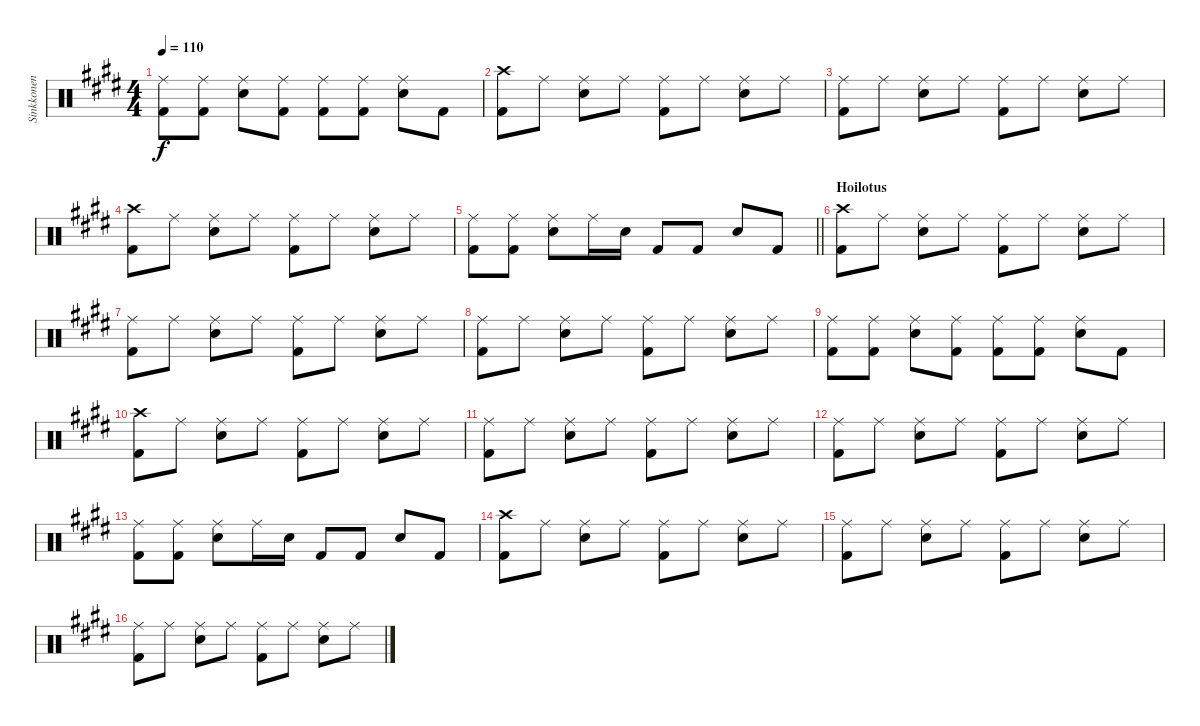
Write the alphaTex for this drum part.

\track ("Sinkkonen" "Sinkkonen") {instrument percussion}
\staff {score}
\articulation defaults
\ts (4 4)
\tempo 110
\clef neutral
\ks c#minor
("Ride (middle)" "Kick (hit) 2").8{dy f} ("Ride (middle)" "Kick (hit) 2").8 ("Ride (middle)" "Snare (hit) 2").8 ("Ride (middle)" "Kick (hit) 2").8 ("Ride (middle)" "Kick (hit) 2").8 ("Ride (middle)" "Kick (hit) 2").8 ("Ride (middle)" "Snare (hit) 2").8 "Kick (hit) 2".8 |
("Crash high (hit)" "Kick (hit) 2").8 "Ride (middle)".8 ("Ride (middle)" "Snare (hit) 2").8 "Ride (middle)".8 ("Ride (middle)" "Kick (hit) 2").8 "Ride (middle)".8 ("Ride (middle)" "Snare (hit) 2").8 "Ride (middle)".8 |
("Ride (middle)" "Kick (hit) 2").8 "Ride (middle)".8 ("Ride (middle)" "Snare (hit) 2").8 "Ride (middle)".8 ("Ride (middle)" "Kick (hit) 2").8 "Ride (middle)".8 ("Ride (middle)" "Snare (hit) 2").8 "Ride (middle)".8 |
("Crash high (hit)" "Kick (hit) 2").8 "Ride (middle)".8 ("Ride (middle)" "Snare (hit) 2").8 "Ride (middle)".8 ("Ride (middle)" "Kick (hit) 2").8 "Ride (middle)".8 ("Ride (middle)" "Snare (hit) 2").8 "Ride (middle)".8 |
\barLineRight lightlight
("Ride (middle)" "Kick (hit) 2").8 ("Ride (middle)" "Kick (hit) 2").8 ("Ride (middle)" "Snare (hit) 2").8 "Ride (middle)".16 "Snare (hit) 2".16 "Kick (hit) 2".8 "Kick (hit) 2".8 "Snare (hit) 2".8 "Kick (hit) 2".8 |
\section ("" "Hoilotus")
("Crash high (hit)" "Kick (hit) 2").8 "Ride (middle)".8 ("Ride (middle)" "Snare (hit) 2").8 "Ride (middle)".8 ("Ride (middle)" "Kick (hit) 2").8 "Ride (middle)".8 ("Ride (middle)" "Snare (hit) 2").8 "Ride (middle)".8 |
("Ride (middle)" "Kick (hit) 2").8 "Ride (middle)".8 ("Ride (middle)" "Snare (hit) 2").8 "Ride (middle)".8 ("Ride (middle)" "Kick (hit) 2").8 "Ride (middle)".8 ("Ride (middle)" "Snare (hit) 2").8 "Ride (middle)".8 |
("Ride (middle)" "Kick (hit) 2").8 "Ride (middle)".8 ("Ride (middle)" "Snare (hit) 2").8 "Ride (middle)".8 ("Ride (middle)" "Kick (hit) 2").8 "Ride (middle)".8 ("Ride (middle)" "Snare (hit) 2").8 "Ride (middle)".8 |
("Ride (middle)" "Kick (hit) 2").8 ("Ride (middle)" "Kick (hit) 2").8 ("Ride (middle)" "Snare (hit) 2").8 ("Ride (middle)" "Kick (hit) 2").8 ("Ride (middle)" "Kick (hit) 2").8 ("Ride (middle)" "Kick (hit) 2").8 ("Ride (middle)" "Snare (hit) 2").8 "Kick (hit) 2".8 |
("Crash high (hit)" "Kick (hit) 2").8 "Ride (middle)".8 ("Ride (middle)" "Snare (hit) 2").8 "Ride (middle)".8 ("Ride (middle)" "Kick (hit) 2").8 "Ride (middle)".8 ("Ride (middle)" "Snare (hit) 2").8 "Ride (middle)".8 |
("Ride (middle)" "Kick (hit) 2").8 "Ride (middle)".8 ("Ride (middle)" "Snare (hit) 2").8 "Ride (middle)".8 ("Ride (middle)" "Kick (hit) 2").8 "Ride (middle)".8 ("Ride (middle)" "Snare (hit) 2").8 "Ride (middle)".8 |
("Ride (middle)" "Kick (hit) 2").8 "Ride (middle)".8 ("Ride (middle)" "Snare (hit) 2").8 "Ride (middle)".8 ("Ride (middle)" "Kick (hit) 2").8 "Ride (middle)".8 ("Ride (middle)" "Snare (hit) 2").8 "Ride (middle)".8 |
("Ride (middle)" "Kick (hit) 2").8 ("Ride (middle)" "Kick (hit) 2").8 ("Ride (middle)" "Snare (hit) 2").8 "Ride (middle)".16 "Snare (hit) 2".16 "Kick (hit) 2".8 "Kick (hit) 2".8 "Snare (hit) 2".8 "Kick (hit) 2".8 |
("Crash high (hit)" "Kick (hit) 2").8 "Ride (middle)".8 ("Ride (middle)" "Snare (hit) 2").8 "Ride (middle)".8 ("Ride (middle)" "Kick (hit) 2").8 "Ride (middle)".8 ("Ride (middle)" "Snare (hit) 2").8 "Ride (middle)".8 |
("Ride (middle)" "Kick (hit) 2").8 "Ride (middle)".8 ("Ride (middle)" "Snare (hit) 2").8 "Ride (middle)".8 ("Ride (middle)" "Kick (hit) 2").8 "Ride (middle)".8 ("Ride (middle)" "Snare (hit) 2").8 "Ride (middle)".8 |
("Ride (middle)" "Kick (hit) 2").8 "Ride (middle)".8 ("Ride (middle)" "Snare (hit) 2").8 "Ride (middle)".8 ("Ride (middle)" "Kick (hit) 2").8 "Ride (middle)".8 ("Ride (middle)" "Snare (hit) 2").8 "Ride (middle)".8
